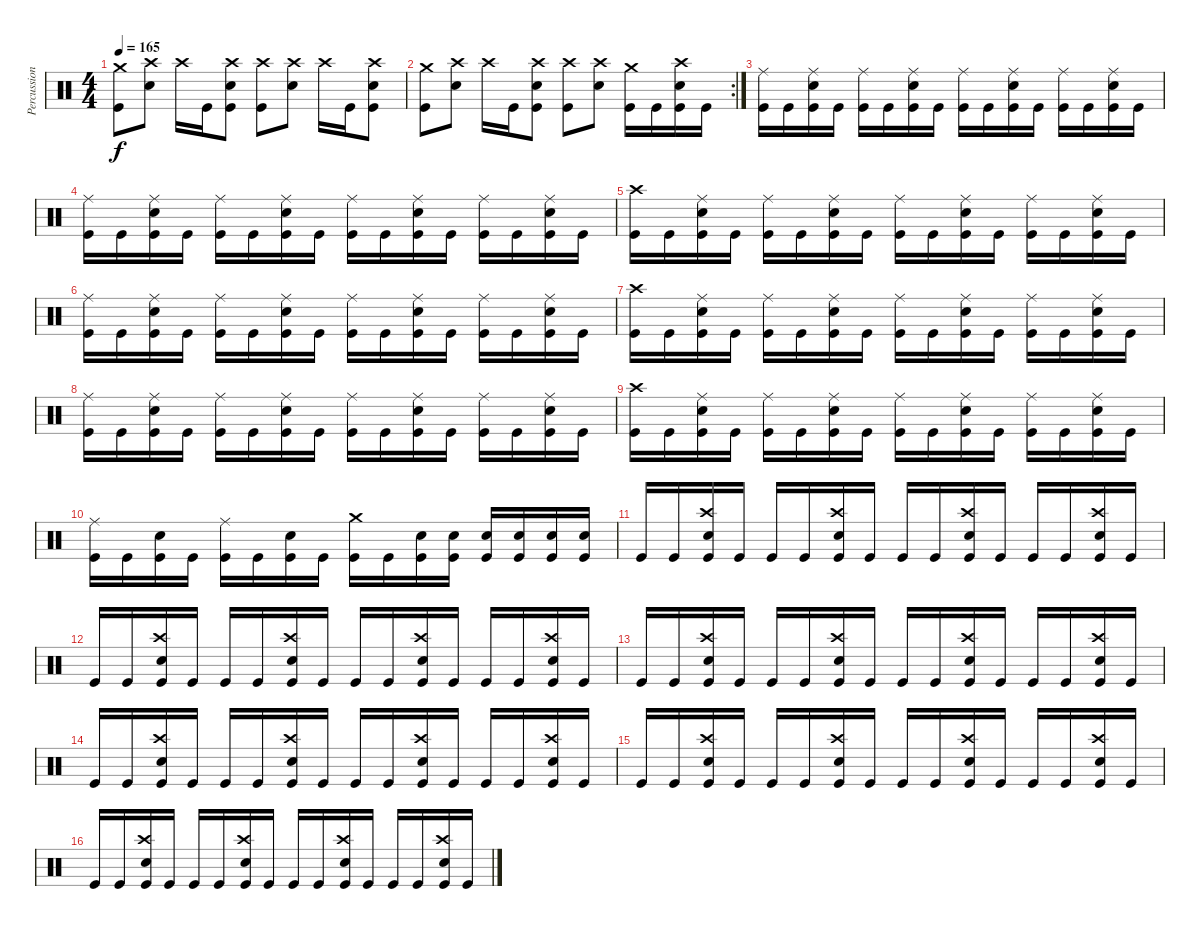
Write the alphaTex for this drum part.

\track ("Percussion" "Percussion") {instrument percussion}
\staff {score}
\articulation defaults
\ts (4 4)
\tempo 165
\clef neutral
\ks c
("Crash medium (hit)" "Kick (hit)").8{dy f} ("Crash high (hit)" "Snare (hit) 2").8 "Crash high (hit)".16 "Kick (hit)".16 ("Crash high (hit)" "Snare (hit) 2" "Kick (hit)").8 ("Crash high (hit)" "Kick (hit)").8 ("Crash high (hit)" "Snare (hit) 2").8 "Crash high (hit)".16 "Kick (hit)".16 ("Crash high (hit)" "Snare (hit) 2" "Kick (hit)").8 |
\rc 2
("Crash medium (hit)" "Kick (hit)").8 ("Crash high (hit)" "Snare (hit) 2").8 "Crash high (hit)".16 "Kick (hit)".16 ("Crash high (hit)" "Snare (hit) 2" "Kick (hit)").8 ("Crash high (hit)" "Kick (hit)").8 ("Crash high (hit)" "Snare (hit) 2").8 ("Crash medium (hit)" "Kick (hit)").16 "Kick (hit)".16 ("Crash high (hit)" "Snare (hit) 2" "Kick (hit)").16 "Kick (hit)".16 |
("Ride (middle)" "Kick (hit)").16 "Kick (hit)".16 ("Ride (middle)" "Snare (hit) 2" "Kick (hit)").16 "Kick (hit)".16 ("Ride (middle)" "Kick (hit)").16 "Kick (hit)".16 ("Ride (middle)" "Snare (hit) 2" "Kick (hit)").16 "Kick (hit)".16 ("Ride (middle)" "Kick (hit)").16 "Kick (hit)".16 ("Ride (middle)" "Snare (hit) 2" "Kick (hit)").16 "Kick (hit)".16 ("Ride (middle)" "Kick (hit)").16 "Kick (hit)".16 ("Ride (middle)" "Snare (hit) 2" "Kick (hit)").16 "Kick (hit)".16 |
("Ride (middle)" "Kick (hit)").16 "Kick (hit)".16 ("Ride (middle)" "Snare (hit) 2" "Kick (hit)").16 "Kick (hit)".16 ("Ride (middle)" "Kick (hit)").16 "Kick (hit)".16 ("Ride (middle)" "Snare (hit) 2" "Kick (hit)").16 "Kick (hit)".16 ("Ride (middle)" "Kick (hit)").16 "Kick (hit)".16 ("Ride (middle)" "Snare (hit) 2" "Kick (hit)").16 "Kick (hit)".16 ("Ride (middle)" "Kick (hit)").16 "Kick (hit)".16 ("Ride (middle)" "Snare (hit) 2" "Kick (hit)").16 "Kick (hit)".16 |
("Crash high (hit)" "Kick (hit)").16 "Kick (hit)".16 ("Ride (middle)" "Snare (hit) 2" "Kick (hit)").16 "Kick (hit)".16 ("Ride (middle)" "Kick (hit)").16 "Kick (hit)".16 ("Ride (middle)" "Snare (hit) 2" "Kick (hit)").16 "Kick (hit)".16 ("Ride (middle)" "Kick (hit)").16 "Kick (hit)".16 ("Ride (middle)" "Snare (hit) 2" "Kick (hit)").16 "Kick (hit)".16 ("Ride (middle)" "Kick (hit)").16 "Kick (hit)".16 ("Ride (middle)" "Snare (hit) 2" "Kick (hit)").16 "Kick (hit)".16 |
("Ride (middle)" "Kick (hit)").16 "Kick (hit)".16 ("Ride (middle)" "Snare (hit) 2" "Kick (hit)").16 "Kick (hit)".16 ("Ride (middle)" "Kick (hit)").16 "Kick (hit)".16 ("Ride (middle)" "Snare (hit) 2" "Kick (hit)").16 "Kick (hit)".16 ("Ride (middle)" "Kick (hit)").16 "Kick (hit)".16 ("Ride (middle)" "Snare (hit) 2" "Kick (hit)").16 "Kick (hit)".16 ("Ride (middle)" "Kick (hit)").16 "Kick (hit)".16 ("Ride (middle)" "Snare (hit) 2" "Kick (hit)").16 "Kick (hit)".16 |
("Crash high (hit)" "Kick (hit)").16 "Kick (hit)".16 ("Ride (middle)" "Snare (hit) 2" "Kick (hit)").16 "Kick (hit)".16 ("Ride (middle)" "Kick (hit)").16 "Kick (hit)".16 ("Ride (middle)" "Snare (hit) 2" "Kick (hit)").16 "Kick (hit)".16 ("Ride (middle)" "Kick (hit)").16 "Kick (hit)".16 ("Ride (middle)" "Snare (hit) 2" "Kick (hit)").16 "Kick (hit)".16 ("Ride (middle)" "Kick (hit)").16 "Kick (hit)".16 ("Ride (middle)" "Snare (hit) 2" "Kick (hit)").16 "Kick (hit)".16 |
("Ride (middle)" "Kick (hit)").16 "Kick (hit)".16 ("Ride (middle)" "Snare (hit) 2" "Kick (hit)").16 "Kick (hit)".16 ("Ride (middle)" "Kick (hit)").16 "Kick (hit)".16 ("Ride (middle)" "Snare (hit) 2" "Kick (hit)").16 "Kick (hit)".16 ("Ride (middle)" "Kick (hit)").16 "Kick (hit)".16 ("Ride (middle)" "Snare (hit) 2" "Kick (hit)").16 "Kick (hit)".16 ("Ride (middle)" "Kick (hit)").16 "Kick (hit)".16 ("Ride (middle)" "Snare (hit) 2" "Kick (hit)").16 "Kick (hit)".16 |
("Crash high (hit)" "Kick (hit)").16 "Kick (hit)".16 ("Ride (middle)" "Snare (hit) 2" "Kick (hit)").16 "Kick (hit)".16 ("Ride (middle)" "Kick (hit)").16 "Kick (hit)".16 ("Ride (middle)" "Snare (hit) 2" "Kick (hit)").16 "Kick (hit)".16 ("Ride (middle)" "Kick (hit)").16 "Kick (hit)".16 ("Ride (middle)" "Snare (hit) 2" "Kick (hit)").16 "Kick (hit)".16 ("Ride (middle)" "Kick (hit)").16 "Kick (hit)".16 ("Ride (middle)" "Snare (hit) 2" "Kick (hit)").16 "Kick (hit)".16 |
("Ride (middle)" "Kick (hit)").16 "Kick (hit)".16 ("Snare (hit) 2" "Kick (hit)").16 "Kick (hit)".16 ("Ride (middle)" "Kick (hit)").16 "Kick (hit)".16 ("Snare (hit) 2" "Kick (hit)").16 "Kick (hit)".16 ("Crash medium (hit)" "Kick (hit)").16 "Kick (hit)".16 ("Snare (hit) 2" "Kick (hit)").16 ("Snare (hit) 2" "Kick (hit)").16 ("Snare (hit) 2" "Kick (hit)").16 ("Snare (hit) 2" "Kick (hit)").16 ("Snare (hit) 2" "Kick (hit)").16 ("Snare (hit) 2" "Kick (hit)").16 |
"Kick (hit)".16 "Kick (hit)".16 ("Crash high (hit)" "Snare (hit) 2" "Kick (hit)").16 "Kick (hit)".16 "Kick (hit)".16 "Kick (hit)".16 ("Crash high (hit)" "Snare (hit) 2" "Kick (hit)").16 "Kick (hit)".16 "Kick (hit)".16 "Kick (hit)".16 ("Crash high (hit)" "Snare (hit) 2" "Kick (hit)").16 "Kick (hit)".16 "Kick (hit)".16 "Kick (hit)".16 ("Crash high (hit)" "Snare (hit) 2" "Kick (hit)").16 "Kick (hit)".16 |
"Kick (hit)".16 "Kick (hit)".16 ("Crash high (hit)" "Snare (hit) 2" "Kick (hit)").16 "Kick (hit)".16 "Kick (hit)".16 "Kick (hit)".16 ("Crash high (hit)" "Snare (hit) 2" "Kick (hit)").16 "Kick (hit)".16 "Kick (hit)".16 "Kick (hit)".16 ("Crash high (hit)" "Snare (hit) 2" "Kick (hit)").16 "Kick (hit)".16 "Kick (hit)".16 "Kick (hit)".16 ("Crash high (hit)" "Snare (hit) 2" "Kick (hit)").16 "Kick (hit)".16 |
"Kick (hit)".16 "Kick (hit)".16 ("Crash high (hit)" "Snare (hit) 2" "Kick (hit)").16 "Kick (hit)".16 "Kick (hit)".16 "Kick (hit)".16 ("Crash high (hit)" "Snare (hit) 2" "Kick (hit)").16 "Kick (hit)".16 "Kick (hit)".16 "Kick (hit)".16 ("Crash high (hit)" "Snare (hit) 2" "Kick (hit)").16 "Kick (hit)".16 "Kick (hit)".16 "Kick (hit)".16 ("Crash high (hit)" "Snare (hit) 2" "Kick (hit)").16 "Kick (hit)".16 |
"Kick (hit)".16 "Kick (hit)".16 ("Crash high (hit)" "Snare (hit) 2" "Kick (hit)").16 "Kick (hit)".16 "Kick (hit)".16 "Kick (hit)".16 ("Crash high (hit)" "Snare (hit) 2" "Kick (hit)").16 "Kick (hit)".16 "Kick (hit)".16 "Kick (hit)".16 ("Crash high (hit)" "Snare (hit) 2" "Kick (hit)").16 "Kick (hit)".16 "Kick (hit)".16 "Kick (hit)".16 ("Crash high (hit)" "Snare (hit) 2" "Kick (hit)").16 "Kick (hit)".16 |
"Kick (hit)".16 "Kick (hit)".16 ("Crash high (hit)" "Snare (hit) 2" "Kick (hit)").16 "Kick (hit)".16 "Kick (hit)".16 "Kick (hit)".16 ("Crash high (hit)" "Snare (hit) 2" "Kick (hit)").16 "Kick (hit)".16 "Kick (hit)".16 "Kick (hit)".16 ("Crash high (hit)" "Snare (hit) 2" "Kick (hit)").16 "Kick (hit)".16 "Kick (hit)".16 "Kick (hit)".16 ("Crash high (hit)" "Snare (hit) 2" "Kick (hit)").16 "Kick (hit)".16 |
"Kick (hit)".16 "Kick (hit)".16 ("Crash high (hit)" "Snare (hit) 2" "Kick (hit)").16 "Kick (hit)".16 "Kick (hit)".16 "Kick (hit)".16 ("Crash high (hit)" "Snare (hit) 2" "Kick (hit)").16 "Kick (hit)".16 "Kick (hit)".16 "Kick (hit)".16 ("Crash high (hit)" "Snare (hit) 2" "Kick (hit)").16 "Kick (hit)".16 "Kick (hit)".16 "Kick (hit)".16 ("Crash high (hit)" "Snare (hit) 2" "Kick (hit)").16 "Kick (hit)".16
